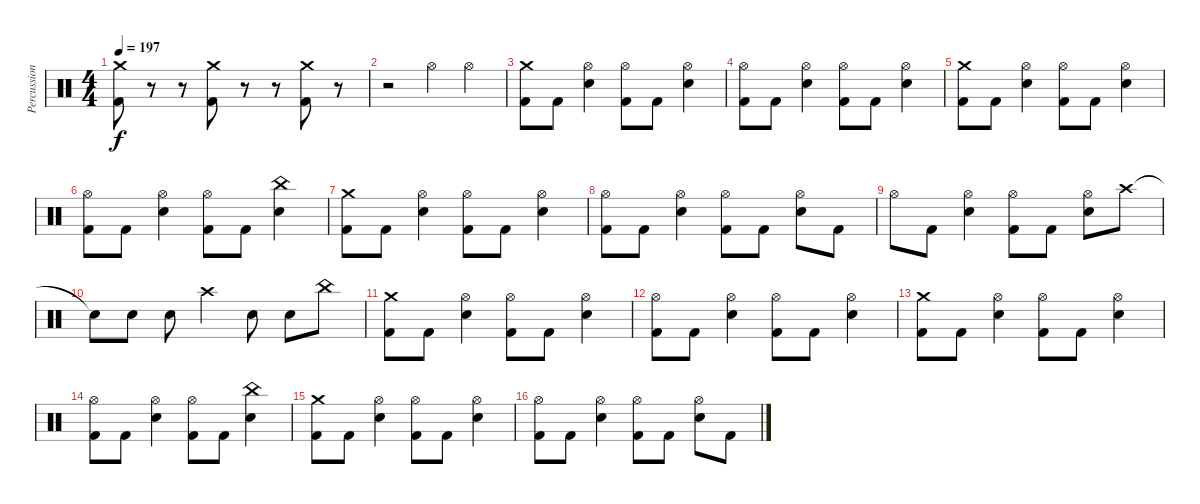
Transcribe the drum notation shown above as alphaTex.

\track ("Percussions" "Percussion") {instrument percussion}
\staff {score}
\articulation defaults
\ts (4 4)
\tempo 197
\clef neutral
\ks c
("Crash medium (hit)" "Kick (hit) 2").8{dy f} r.8 r.8 ("Crash medium (hit)" "Kick (hit) 2").8 r.8 r.8 ("Crash medium (hit)" "Kick (hit) 2").8 r.8 |
r.2 "Hi-Hat (open)".4 "Hi-Hat (open)".4 |
("Crash medium (hit)" "Kick (hit) 2").8 "Kick (hit) 2".8 ("Hi-Hat (open)" "Snare (hit) 2").4 ("Hi-Hat (open)" "Kick (hit) 2").8 "Kick (hit) 2".8 ("Hi-Hat (open)" "Snare (hit) 2").4 |
("Hi-Hat (open)" "Kick (hit) 2").8 "Kick (hit) 2".8 ("Hi-Hat (open)" "Snare (hit) 2").4 ("Hi-Hat (open)" "Kick (hit) 2").8 "Kick (hit) 2".8 ("Hi-Hat (open)" "Snare (hit) 2").4 |
("Crash medium (hit)" "Kick (hit) 2").8 "Kick (hit) 2".8 ("Hi-Hat (open)" "Snare (hit) 2").4 ("Hi-Hat (open)" "Kick (hit) 2").8 "Kick (hit) 2".8 ("Hi-Hat (open)" "Snare (hit) 2").4 |
("Hi-Hat (open)" "Kick (hit) 2").8 "Kick (hit) 2".8 ("Hi-Hat (open)" "Snare (hit) 2").4 ("Hi-Hat (open)" "Kick (hit) 2").8 "Kick (hit) 2".8 ("China (hit)" "Snare (hit) 2").4 |
("Crash medium (hit)" "Kick (hit) 2").8 "Kick (hit) 2".8 ("Hi-Hat (open)" "Snare (hit) 2").4 ("Hi-Hat (open)" "Kick (hit) 2").8 "Kick (hit) 2".8 ("Hi-Hat (open)" "Snare (hit) 2").4 |
("Hi-Hat (open)" "Kick (hit) 2").8 "Kick (hit) 2".8 ("Hi-Hat (open)" "Snare (hit) 2").4 ("Hi-Hat (open)" "Kick (hit) 2").8 "Kick (hit) 2".8 ("Hi-Hat (open)" "Snare (hit) 2").8 "Kick (hit) 2".8 |
"Hi-Hat (open)".8 "Kick (hit) 2".8 ("Hi-Hat (open)" "Snare (hit) 2").4 ("Hi-Hat (open)" "Kick (hit) 2").8 "Kick (hit) 2".8 ("Hi-Hat (open)" "Snare (hit) 2").8 "Crash high (hit)".8 |
"Snare (hit)"{t}.8 "Snare (hit) 2".8 "Snare (hit) 2".8 "Crash high (hit)".4 "Snare (hit) 2".8 "Snare (hit) 2".8 "China (hit)".8 |
("Crash medium (hit)" "Kick (hit) 2").8 "Kick (hit) 2".8 ("Hi-Hat (open)" "Snare (hit) 2").4 ("Hi-Hat (open)" "Kick (hit) 2").8 "Kick (hit) 2".8 ("Hi-Hat (open)" "Snare (hit) 2").4 |
("Hi-Hat (open)" "Kick (hit) 2").8 "Kick (hit) 2".8 ("Hi-Hat (open)" "Snare (hit) 2").4 ("Hi-Hat (open)" "Kick (hit) 2").8 "Kick (hit) 2".8 ("Hi-Hat (open)" "Snare (hit) 2").4 |
("Crash medium (hit)" "Kick (hit) 2").8 "Kick (hit) 2".8 ("Hi-Hat (open)" "Snare (hit) 2").4 ("Hi-Hat (open)" "Kick (hit) 2").8 "Kick (hit) 2".8 ("Hi-Hat (open)" "Snare (hit) 2").4 |
("Hi-Hat (open)" "Kick (hit) 2").8 "Kick (hit) 2".8 ("Hi-Hat (open)" "Snare (hit) 2").4 ("Hi-Hat (open)" "Kick (hit) 2").8 "Kick (hit) 2".8 ("China (hit)" "Snare (hit) 2").4 |
("Crash medium (hit)" "Kick (hit) 2").8 "Kick (hit) 2".8 ("Hi-Hat (open)" "Snare (hit) 2").4 ("Hi-Hat (open)" "Kick (hit) 2").8 "Kick (hit) 2".8 ("Hi-Hat (open)" "Snare (hit) 2").4 |
("Hi-Hat (open)" "Kick (hit) 2").8 "Kick (hit) 2".8 ("Hi-Hat (open)" "Snare (hit) 2").4 ("Hi-Hat (open)" "Kick (hit) 2").8 "Kick (hit) 2".8 ("Hi-Hat (open)" "Snare (hit) 2").8 "Kick (hit) 2".8
